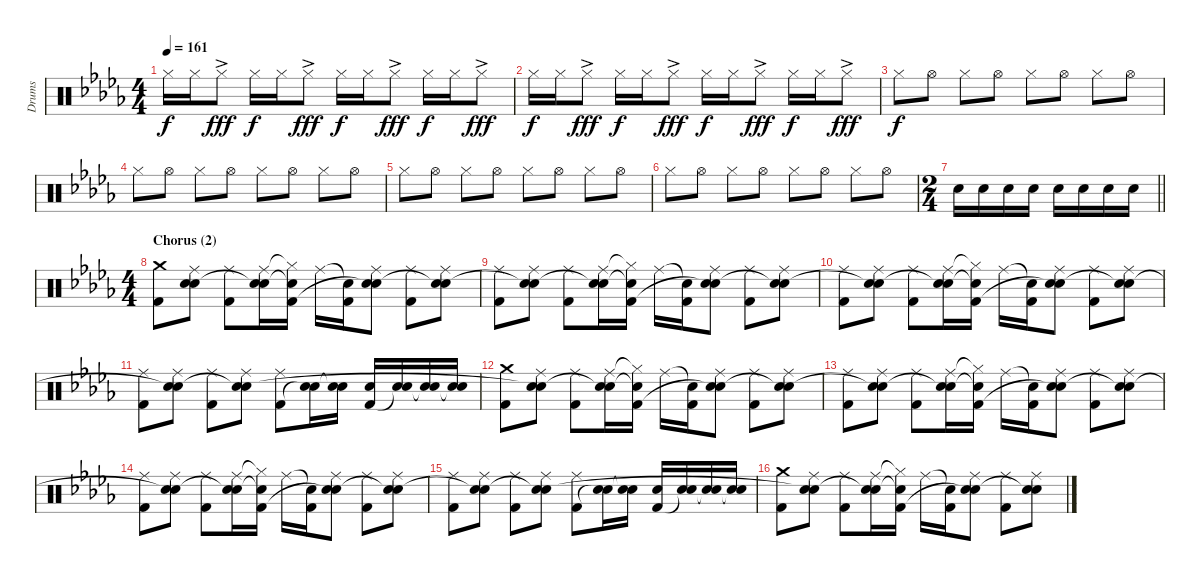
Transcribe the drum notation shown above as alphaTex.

\track ("Drums" "Drums") {instrument percussion}
\staff {score}
\articulation defaults
\ts (4 4)
\tempo 161
\clef neutral
\ks bbminor "Hi-Hat (closed)".16{dy f} "Hi-Hat (closed)".16 "Hi-Hat (closed)"{ac}.8{dy fff} "Hi-Hat (closed)".16{dy f} "Hi-Hat (closed)".16 "Hi-Hat (closed)"{ac}.8{dy fff} "Hi-Hat (closed)".16{dy f} "Hi-Hat (closed)".16 "Hi-Hat (closed)"{ac}.8{dy fff} "Hi-Hat (closed)".16{dy f} "Hi-Hat (closed)".16 "Hi-Hat (closed)"{ac}.8{dy fff}
|
"Hi-Hat (closed)".16{dy f} "Hi-Hat (closed)".16 "Hi-Hat (closed)"{ac}.8{dy fff} "Hi-Hat (closed)".16{dy f} "Hi-Hat (closed)".16 "Hi-Hat (closed)"{ac}.8{dy fff} "Hi-Hat (closed)".16{dy f} "Hi-Hat (closed)".16 "Hi-Hat (closed)"{ac}.8{dy fff} "Hi-Hat (closed)".16{dy f} "Hi-Hat (closed)".16 "Hi-Hat (closed)"{ac}.8{dy fff} |
"Hi-Hat (closed)".8{dy f} "Hi-Hat (open)".8 "Hi-Hat (closed)".8 "Hi-Hat (open)".8 "Hi-Hat (closed)".8 "Hi-Hat (open)".8 "Hi-Hat (closed)".8 "Hi-Hat (open)".8 |
"Hi-Hat (closed)".8 "Hi-Hat (open)".8 "Hi-Hat (closed)".8 "Hi-Hat (open)".8 "Hi-Hat (closed)".8 "Hi-Hat (open)".8 "Hi-Hat (closed)".8 "Hi-Hat (open)".8 |
"Hi-Hat (closed)".8 "Hi-Hat (open)".8 "Hi-Hat (closed)".8 "Hi-Hat (open)".8 "Hi-Hat (closed)".8 "Hi-Hat (open)".8 "Hi-Hat (closed)".8 "Hi-Hat (open)".8 |
"Hi-Hat (closed)".8 "Hi-Hat (open)".8 "Hi-Hat (closed)".8 "Hi-Hat (open)".8 "Hi-Hat (closed)".8 "Hi-Hat (open)".8 "Hi-Hat (closed)".8 "Hi-Hat (open)".8 |
\ts (2 4)
\barLineRight lightlight "Electric Snare (hit)".16 "Electric Snare (hit)".16 "Electric Snare (hit)".16 "Electric Snare (hit)".16 "Electric Snare (hit)".16 "Electric Snare (hit)".16 "Electric Snare (hit)".16 "Electric Snare (hit)".16
|
\ts (4 4)
\section ("" "Chorus (2)")
("Crash medium (hit)" "Kick (hit) 2").8 ("Ride (middle)" "Electric Snare (hit)" "Snare (hit)").8 ("Ride (middle)" "Kick (hit) 2").8 ("Ride (middle)" "Electric Snare (hit)" "Snare (hit)"{t}).16 ("Hi-Hat (closed)"{t} "Snare (hit)"{t} "Kick (hit) 2").16 "Ride (middle)".16 ("Snare (hit)"{t} "Kick (hit) 2").16 ("Ride (middle)" "Electric Snare (hit)" "Snare (hit)"{t}).8 ("Ride (middle)" "Kick (hit) 2").8 ("Ride (middle)" "Electric Snare (hit)" "Snare (hit)"{t}).8 |
("Ride (middle)" "Kick (hit) 2").8 ("Ride (middle)" "Electric Snare (hit)" "Snare (hit)"{t}).8 ("Ride (middle)" "Kick (hit) 2").8 ("Ride (middle)" "Electric Snare (hit)" "Snare (hit)"{t}).16 ("Hi-Hat (closed)"{t} "Snare (hit)"{t} "Kick (hit) 2").16 "Ride (middle)".16 ("Snare (hit)"{t} "Kick (hit) 2").16 ("Ride (middle)" "Electric Snare (hit)" "Snare (hit)"{t}).8 ("Ride (middle)" "Kick (hit) 2").8 ("Ride (middle)" "Electric Snare (hit)" "Snare (hit)"{t}).8 |
("Ride (middle)" "Kick (hit) 2").8 ("Ride (middle)" "Electric Snare (hit)" "Snare (hit)"{t}).8 ("Ride (middle)" "Kick (hit) 2").8 ("Ride (middle)" "Electric Snare (hit)" "Snare (hit)"{t}).16 ("Hi-Hat (closed)"{t} "Snare (hit)"{t} "Kick (hit) 2").16 "Ride (middle)".16 ("Snare (hit)"{t} "Kick (hit) 2").16 ("Ride (middle)" "Electric Snare (hit)" "Snare (hit)"{t}).8 ("Ride (middle)" "Kick (hit) 2").8 ("Ride (middle)" "Electric Snare (hit)" "Snare (hit)"{t}).8 |
("Ride (middle)" "Kick (hit) 2").8 ("Ride (middle)" "Electric Snare (hit)" "Snare (hit)"{t}).8 ("Ride (middle)" "Kick (hit) 2").8 ("Ride (middle)" "Electric Snare (hit)" "Snare (hit)"{t}).8 ("Ride (middle)" "Kick (hit) 2").8 ("Electric Snare (hit)" "Snare (hit)"{t}).16 ("Electric Snare (hit)" "Snare (hit)"{t}).16 ("Electric Snare (hit)" "Kick (hit) 2").16 ("Electric Snare (hit)" "Snare (hit)"{t}).16 ("Electric Snare (hit)" "Snare (hit)"{t}).16 ("Electric Snare (hit)" "Snare (hit)"{t}).16 |
("Crash medium (hit)" "Kick (hit) 2").8 ("Ride (middle)" "Electric Snare (hit)" "Snare (hit)"{t}).8 ("Ride (middle)" "Kick (hit) 2").8 ("Ride (middle)" "Electric Snare (hit)" "Snare (hit)"{t}).16 ("Hi-Hat (closed)"{t} "Snare (hit)"{t} "Kick (hit) 2").16 "Ride (middle)".16 ("Snare (hit)"{t} "Kick (hit) 2").16 ("Ride (middle)" "Electric Snare (hit)" "Snare (hit)"{t}).8 ("Ride (middle)" "Kick (hit) 2").8 ("Ride (middle)" "Electric Snare (hit)" "Snare (hit)"{t}).8 |
("Ride (middle)" "Kick (hit) 2").8 ("Ride (middle)" "Electric Snare (hit)" "Snare (hit)"{t}).8 ("Ride (middle)" "Kick (hit) 2").8 ("Ride (middle)" "Electric Snare (hit)" "Snare (hit)"{t}).16 ("Hi-Hat (closed)"{t} "Snare (hit)"{t} "Kick (hit) 2").16 "Ride (middle)".16 ("Snare (hit)"{t} "Kick (hit) 2").16 ("Ride (middle)" "Electric Snare (hit)" "Snare (hit)"{t}).8 ("Ride (middle)" "Kick (hit) 2").8 ("Ride (middle)" "Electric Snare (hit)" "Snare (hit)"{t}).8 |
("Ride (middle)" "Kick (hit) 2").8 ("Ride (middle)" "Electric Snare (hit)" "Snare (hit)"{t}).8 ("Ride (middle)" "Kick (hit) 2").8 ("Ride (middle)" "Electric Snare (hit)" "Snare (hit)"{t}).16 ("Hi-Hat (closed)"{t} "Snare (hit)"{t} "Kick (hit) 2").16 "Ride (middle)".16 ("Snare (hit)"{t} "Kick (hit) 2").16 ("Ride (middle)" "Electric Snare (hit)" "Snare (hit)"{t}).8 ("Ride (middle)" "Kick (hit) 2").8 ("Ride (middle)" "Electric Snare (hit)" "Snare (hit)"{t}).8 |
("Ride (middle)" "Kick (hit) 2").8 ("Ride (middle)" "Electric Snare (hit)" "Snare (hit)"{t}).8 ("Ride (middle)" "Kick (hit) 2").8 ("Ride (middle)" "Electric Snare (hit)" "Snare (hit)"{t}).8 ("Ride (middle)" "Kick (hit) 2").8 ("Electric Snare (hit)" "Snare (hit)"{t}).16 ("Electric Snare (hit)" "Snare (hit)"{t}).16 ("Electric Snare (hit)" "Kick (hit) 2").16 ("Electric Snare (hit)" "Snare (hit)"{t}).16 ("Electric Snare (hit)" "Snare (hit)"{t}).16 ("Electric Snare (hit)" "Snare (hit)"{t}).16 |
("Crash medium (hit)" "Kick (hit) 2").8 ("Ride (middle)" "Electric Snare (hit)" "Snare (hit)"{t}).8 ("Ride (middle)" "Kick (hit) 2").8 ("Ride (middle)" "Electric Snare (hit)" "Snare (hit)"{t}).16 ("Hi-Hat (closed)"{t} "Snare (hit)"{t} "Kick (hit) 2").16 "Ride (middle)".16 ("Snare (hit)"{t} "Kick (hit) 2").16 ("Ride (middle)" "Electric Snare (hit)" "Snare (hit)"{t}).8 ("Ride (middle)" "Kick (hit) 2").8 ("Ride (middle)" "Electric Snare (hit)" "Snare (hit)"{t}).8
